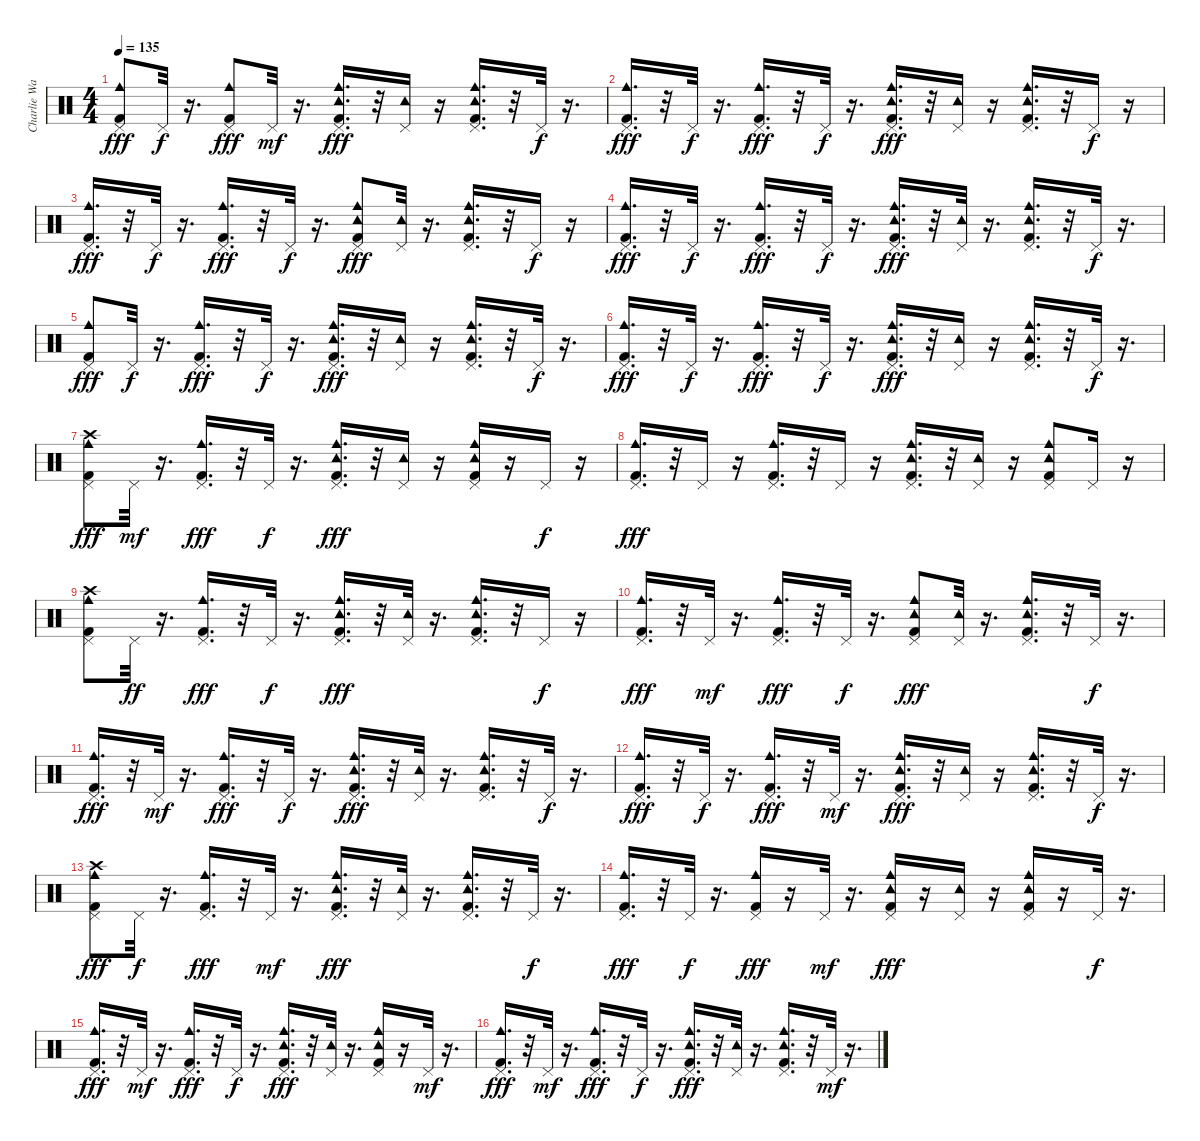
\track ("Charlie Watts - Drums" "Charlie Wa") {instrument percussion}
\staff {score}
\articulation defaults
\ts (4 4)
\tempo 135
\clef neutral
\ks c
("Kick (hit) 2" "Pedal Hi-Hat (hit)" "Cowbell medium (hit)").8{dy fff} "Pedal Hi-Hat (hit)".32{dy f} r.16{d} ("Kick (hit) 2" "Pedal Hi-Hat (hit)" "Cowbell medium (hit)").8{dy fff} "Pedal Hi-Hat (hit)".32{dy mf} r.16{d} ("Kick (hit) 2" "Pedal Hi-Hat (hit)" "Tambourine (hit)" "Cowbell medium (hit)").16{d dy fff} r.32 ("Pedal Hi-Hat (hit)" "Tambourine (hit)").16 r.16 ("Kick (hit) 2" "Pedal Hi-Hat (hit)" "Tambourine (hit)" "Cowbell medium (hit)").16{d} r.32 "Pedal Hi-Hat (hit)".32{dy f} r.16{d} |
("Kick (hit) 2" "Pedal Hi-Hat (hit)" "Cowbell medium (hit)").16{d dy fff} r.32 "Pedal Hi-Hat (hit)".32{dy f} r.16{d} ("Kick (hit) 2" "Pedal Hi-Hat (hit)" "Cowbell medium (hit)").16{d dy fff} r.32 "Pedal Hi-Hat (hit)".32{dy f} r.16{d} ("Kick (hit) 2" "Pedal Hi-Hat (hit)" "Tambourine (hit)" "Cowbell medium (hit)").16{d dy fff} r.32 ("Pedal Hi-Hat (hit)" "Tambourine (hit)").16 r.16 ("Kick (hit) 2" "Pedal Hi-Hat (hit)" "Tambourine (hit)" "Cowbell medium (hit)").16{d} r.32 "Pedal Hi-Hat (hit)".16{dy f} r.16 |
("Kick (hit) 2" "Pedal Hi-Hat (hit)" "Cowbell medium (hit)").16{d dy fff} r.32 "Pedal Hi-Hat (hit)".32{dy f} r.16{d} ("Kick (hit) 2" "Pedal Hi-Hat (hit)" "Cowbell medium (hit)").16{d dy fff} r.32 "Pedal Hi-Hat (hit)".32{dy f} r.16{d} ("Kick (hit) 2" "Pedal Hi-Hat (hit)" "Tambourine (hit)" "Cowbell medium (hit)").8{dy fff} ("Pedal Hi-Hat (hit)" "Tambourine (hit)").32 r.16{d} ("Kick (hit) 2" "Pedal Hi-Hat (hit)" "Tambourine (hit)" "Cowbell medium (hit)").16{d} r.32 "Pedal Hi-Hat (hit)".16{dy f} r.16 |
("Kick (hit) 2" "Pedal Hi-Hat (hit)" "Cowbell medium (hit)").16{d dy fff} r.32 "Pedal Hi-Hat (hit)".32{dy f} r.16{d} ("Kick (hit) 2" "Pedal Hi-Hat (hit)" "Cowbell medium (hit)").16{d dy fff} r.32 "Pedal Hi-Hat (hit)".32{dy f} r.16{d} ("Kick (hit) 2" "Pedal Hi-Hat (hit)" "Tambourine (hit)" "Cowbell medium (hit)").16{d dy fff} r.32 ("Pedal Hi-Hat (hit)" "Tambourine (hit)").32 r.16{d} ("Kick (hit) 2" "Pedal Hi-Hat (hit)" "Tambourine (hit)" "Cowbell medium (hit)").16{d} r.32 "Pedal Hi-Hat (hit)".32{dy f} r.16{d} |
("Kick (hit) 2" "Pedal Hi-Hat (hit)" "Cowbell medium (hit)").8{dy fff} "Pedal Hi-Hat (hit)".32{dy f} r.16{d} ("Kick (hit) 2" "Pedal Hi-Hat (hit)" "Cowbell medium (hit)").16{d dy fff} r.32 "Pedal Hi-Hat (hit)".32{dy f} r.16{d} ("Kick (hit) 2" "Pedal Hi-Hat (hit)" "Tambourine (hit)" "Cowbell medium (hit)").16{d dy fff} r.32 ("Pedal Hi-Hat (hit)" "Tambourine (hit)").16 r.16 ("Kick (hit) 2" "Pedal Hi-Hat (hit)" "Tambourine (hit)" "Cowbell medium (hit)").16{d} r.32 "Pedal Hi-Hat (hit)".32{dy f} r.16{d} |
("Kick (hit) 2" "Pedal Hi-Hat (hit)" "Cowbell medium (hit)").16{d dy fff} r.32 "Pedal Hi-Hat (hit)".32{dy f} r.16{d} ("Kick (hit) 2" "Pedal Hi-Hat (hit)" "Cowbell medium (hit)").16{d dy fff} r.32 "Pedal Hi-Hat (hit)".32{dy f} r.16{d} ("Kick (hit) 2" "Pedal Hi-Hat (hit)" "Tambourine (hit)" "Cowbell medium (hit)").16{d dy fff} r.32 ("Pedal Hi-Hat (hit)" "Tambourine (hit)").16 r.16 ("Kick (hit) 2" "Pedal Hi-Hat (hit)" "Tambourine (hit)" "Cowbell medium (hit)").16{d} r.32 "Pedal Hi-Hat (hit)".32{dy f} r.16{d} |
("Kick (hit) 2" "Pedal Hi-Hat (hit)" "Crash high (hit)" "Cowbell medium (hit)").8{dy fff} "Pedal Hi-Hat (hit)".32{dy mf} r.16{d} ("Kick (hit) 2" "Pedal Hi-Hat (hit)" "Cowbell medium (hit)").16{d dy fff} r.32 "Pedal Hi-Hat (hit)".32{dy f} r.16{d} ("Kick (hit) 2" "Pedal Hi-Hat (hit)" "Tambourine (hit)" "Cowbell medium (hit)").16{d dy fff} r.32 ("Pedal Hi-Hat (hit)" "Tambourine (hit)").16 r.16 ("Kick (hit) 2" "Pedal Hi-Hat (hit)" "Tambourine (hit)" "Cowbell medium (hit)").16 r.16 "Pedal Hi-Hat (hit)".16{dy f} r.16 |
("Kick (hit) 2" "Pedal Hi-Hat (hit)" "Cowbell medium (hit)").16{d dy fff} r.32 "Pedal Hi-Hat (hit)".16 r.16 ("Kick (hit) 2" "Pedal Hi-Hat (hit)" "Cowbell medium (hit)").16{d} r.32 "Pedal Hi-Hat (hit)".16 r.16 ("Kick (hit) 2" "Pedal Hi-Hat (hit)" "Tambourine (hit)" "Cowbell medium (hit)").16{d} r.32 ("Pedal Hi-Hat (hit)" "Tambourine (hit)").16 r.16 ("Kick (hit) 2" "Pedal Hi-Hat (hit)" "Tambourine (hit)" "Cowbell medium (hit)").8 "Pedal Hi-Hat (hit)".16 r.16 |
("Kick (hit) 2" "Pedal Hi-Hat (hit)" "Crash high (hit)" "Cowbell medium (hit)").8 "Pedal Hi-Hat (hit)".32{dy ff} r.16{d} ("Kick (hit) 2" "Pedal Hi-Hat (hit)" "Cowbell medium (hit)").16{d dy fff} r.32 "Pedal Hi-Hat (hit)".32{dy f} r.16{d} ("Kick (hit) 2" "Pedal Hi-Hat (hit)" "Tambourine (hit)" "Cowbell medium (hit)").16{d dy fff} r.32 ("Pedal Hi-Hat (hit)" "Tambourine (hit)").32 r.16{d} ("Kick (hit) 2" "Pedal Hi-Hat (hit)" "Tambourine (hit)" "Cowbell medium (hit)").16{d} r.32 "Pedal Hi-Hat (hit)".16{dy f} r.16 |
("Kick (hit) 2" "Pedal Hi-Hat (hit)" "Cowbell medium (hit)").16{d dy fff} r.32 "Pedal Hi-Hat (hit)".32{dy mf} r.16{d} ("Kick (hit) 2" "Pedal Hi-Hat (hit)" "Cowbell medium (hit)").16{d dy fff} r.32 "Pedal Hi-Hat (hit)".32{dy f} r.16{d} ("Kick (hit) 2" "Pedal Hi-Hat (hit)" "Tambourine (hit)" "Cowbell medium (hit)").8{dy fff} ("Pedal Hi-Hat (hit)" "Tambourine (hit)").32 r.16{d} ("Kick (hit) 2" "Pedal Hi-Hat (hit)" "Tambourine (hit)" "Cowbell medium (hit)").16{d} r.32 "Pedal Hi-Hat (hit)".32{dy f} r.16{d} |
("Kick (hit) 2" "Pedal Hi-Hat (hit)" "Cowbell medium (hit)").16{d dy fff} r.32 "Pedal Hi-Hat (hit)".32{dy mf} r.16{d} ("Kick (hit) 2" "Pedal Hi-Hat (hit)" "Cowbell medium (hit)").16{d dy fff} r.32 "Pedal Hi-Hat (hit)".32{dy f} r.16{d} ("Kick (hit) 2" "Pedal Hi-Hat (hit)" "Tambourine (hit)" "Cowbell medium (hit)").16{d dy fff} r.32 ("Pedal Hi-Hat (hit)" "Tambourine (hit)").32 r.16{d} ("Kick (hit) 2" "Pedal Hi-Hat (hit)" "Tambourine (hit)" "Cowbell medium (hit)").16{d} r.32 "Pedal Hi-Hat (hit)".32{dy f} r.16{d} |
("Kick (hit) 2" "Pedal Hi-Hat (hit)" "Cowbell medium (hit)").16{d dy fff} r.32 "Pedal Hi-Hat (hit)".32{dy f} r.16{d} ("Kick (hit) 2" "Pedal Hi-Hat (hit)" "Cowbell medium (hit)").16{d dy fff} r.32 "Pedal Hi-Hat (hit)".32{dy mf} r.16{d} ("Kick (hit) 2" "Pedal Hi-Hat (hit)" "Tambourine (hit)" "Cowbell medium (hit)").16{d dy fff} r.32 ("Pedal Hi-Hat (hit)" "Tambourine (hit)").16 r.16 ("Kick (hit) 2" "Pedal Hi-Hat (hit)" "Tambourine (hit)" "Cowbell medium (hit)").16{d} r.32 "Pedal Hi-Hat (hit)".32{dy f} r.16{d} |
("Kick (hit) 2" "Pedal Hi-Hat (hit)" "Crash high (hit)" "Cowbell medium (hit)").8{dy fff} "Pedal Hi-Hat (hit)".32{dy f} r.16{d} ("Kick (hit) 2" "Pedal Hi-Hat (hit)" "Cowbell medium (hit)").16{d dy fff} r.32 "Pedal Hi-Hat (hit)".32{dy mf} r.16{d} ("Kick (hit) 2" "Pedal Hi-Hat (hit)" "Tambourine (hit)" "Cowbell medium (hit)").16{d dy fff} r.32 ("Pedal Hi-Hat (hit)" "Tambourine (hit)").32 r.16{d} ("Kick (hit) 2" "Pedal Hi-Hat (hit)" "Tambourine (hit)" "Cowbell medium (hit)").16{d} r.32 "Pedal Hi-Hat (hit)".32{dy f} r.16{d} |
("Kick (hit) 2" "Pedal Hi-Hat (hit)" "Cowbell medium (hit)").16{d dy fff} r.32 "Pedal Hi-Hat (hit)".32{dy f} r.16{d} ("Kick (hit) 2" "Pedal Hi-Hat (hit)" "Cowbell medium (hit)").16{dy fff} r.16 "Pedal Hi-Hat (hit)".32{dy mf} r.16{d} ("Kick (hit) 2" "Pedal Hi-Hat (hit)" "Tambourine (hit)" "Cowbell medium (hit)").16{dy fff} r.16 ("Pedal Hi-Hat (hit)" "Tambourine (hit)").16 r.16 ("Kick (hit) 2" "Pedal Hi-Hat (hit)" "Tambourine (hit)" "Cowbell medium (hit)").16 r.16 "Pedal Hi-Hat (hit)".32{dy f} r.16{d} |
("Kick (hit) 2" "Pedal Hi-Hat (hit)" "Cowbell medium (hit)").16{d dy fff} r.32 "Pedal Hi-Hat (hit)".32{dy mf} r.16{d} ("Kick (hit) 2" "Pedal Hi-Hat (hit)" "Cowbell medium (hit)").16{d dy fff} r.32 "Pedal Hi-Hat (hit)".32{dy f} r.16{d} ("Kick (hit) 2" "Pedal Hi-Hat (hit)" "Tambourine (hit)" "Cowbell medium (hit)").16{d dy fff} r.32 ("Pedal Hi-Hat (hit)" "Tambourine (hit)").32 r.16{d} ("Kick (hit) 2" "Pedal Hi-Hat (hit)" "Tambourine (hit)" "Cowbell medium (hit)").16 r.16 "Pedal Hi-Hat (hit)".32{dy mf} r.16{d} |
("Kick (hit) 2" "Pedal Hi-Hat (hit)" "Cowbell medium (hit)").16{d dy fff} r.32 "Pedal Hi-Hat (hit)".32{dy mf} r.16{d} ("Kick (hit) 2" "Pedal Hi-Hat (hit)" "Cowbell medium (hit)").16{d dy fff} r.32 "Pedal Hi-Hat (hit)".32{dy f} r.16{d} ("Kick (hit) 2" "Pedal Hi-Hat (hit)" "Tambourine (hit)" "Cowbell medium (hit)").16{d dy fff} r.32 ("Pedal Hi-Hat (hit)" "Tambourine (hit)").32 r.16{d} ("Kick (hit) 2" "Pedal Hi-Hat (hit)" "Tambourine (hit)" "Cowbell medium (hit)").16{d} r.32 "Pedal Hi-Hat (hit)".32{dy mf} r.16{d}
